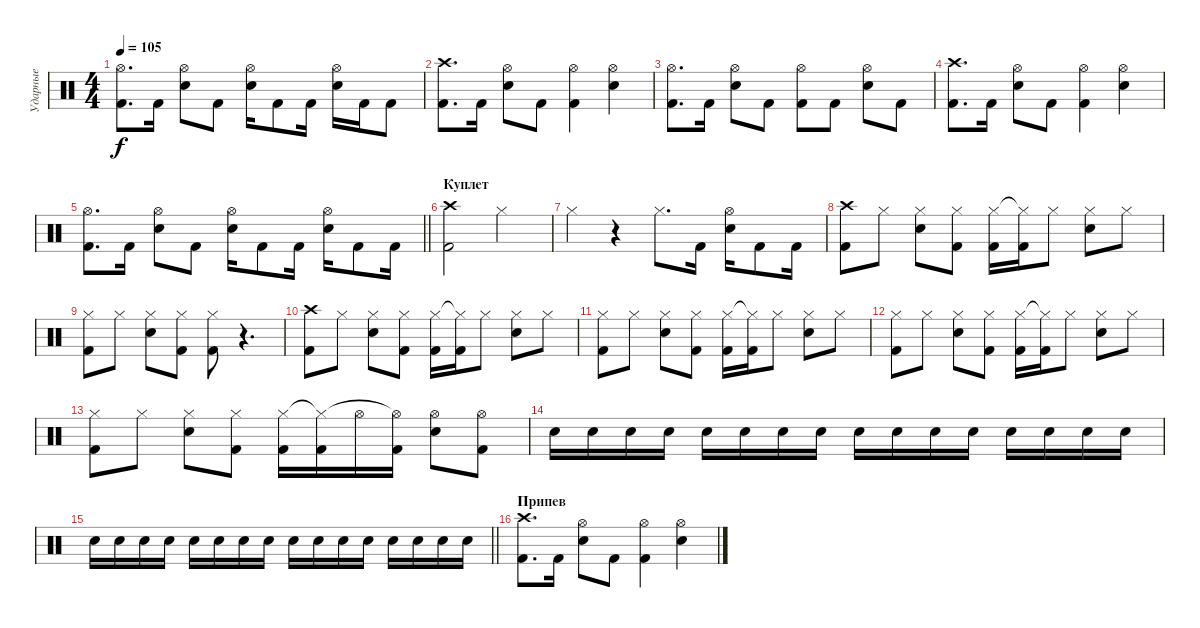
\track ("Ударные" "Ударные") {instrument percussion}
\staff {score}
\articulation defaults
\ts (4 4)
\tempo 105
\clef neutral
\ks c
("Kick (hit) 2" "Hi-Hat (open)").8{d dy f} "Kick (hit) 2".16 ("Snare (hit) 2" "Hi-Hat (open)").8 "Kick (hit) 2".8 ("Snare (hit) 2" "Hi-Hat (open)").16 "Kick (hit) 2".8 "Kick (hit) 2".16 ("Snare (hit) 2" "Hi-Hat (open)").16 "Kick (hit) 2".16 "Kick (hit) 2".8 |
("Kick (hit) 2" "Crash high (hit)").8{d} "Kick (hit) 2".16 ("Snare (hit) 2" "Hi-Hat (open)").8 "Kick (hit) 2".8 ("Kick (hit) 2" "Hi-Hat (open)").4 ("Snare (hit) 2" "Hi-Hat (open)").4 |
("Kick (hit) 2" "Hi-Hat (open)").8{d} "Kick (hit) 2".16 ("Snare (hit) 2" "Hi-Hat (open)").8 "Kick (hit) 2".8 ("Kick (hit) 2" "Hi-Hat (open)").8 "Kick (hit) 2".8 ("Snare (hit) 2" "Hi-Hat (open)").8 "Kick (hit) 2".8 |
("Kick (hit) 2" "Crash high (hit)").8{d} "Kick (hit) 2".16 ("Snare (hit) 2" "Hi-Hat (open)").8 "Kick (hit) 2".8 ("Kick (hit) 2" "Hi-Hat (open)").4 ("Snare (hit) 2" "Hi-Hat (open)").4 |
\barLineRight lightlight
("Kick (hit) 2" "Hi-Hat (open)").8{d} "Kick (hit) 2".16 ("Snare (hit) 2" "Hi-Hat (open)").8 "Kick (hit) 2".8 ("Snare (hit) 2" "Hi-Hat (open)").16 "Kick (hit) 2".8 "Kick (hit) 2".16 ("Snare (hit) 2" "Hi-Hat (open)").16 "Kick (hit) 2".8 "Kick (hit) 2".16 |
\section ("" "Куплет")
("Kick (hit) 2" "Crash high (hit)").2 "Hi-Hat (closed)".2 |
"Hi-Hat (closed)".4 r.4 "Hi-Hat (closed)".8{d} "Kick (hit) 2".16 ("Snare (hit) 2" "Hi-Hat (open)").16 "Kick (hit) 2".8 "Kick (hit) 2".16 |
("Kick (hit) 2" "Crash high (hit)").8 "Hi-Hat (closed)".8 ("Snare (hit) 2" "Hi-Hat (closed)").8 ("Kick (hit) 2" "Hi-Hat (closed)").8 ("Kick (hit) 2" "Hi-Hat (closed)").16 ("Kick (hit) 2" "Hi-Hat (closed)"{t}).16 "Hi-Hat (closed)".8 ("Snare (hit) 2" "Hi-Hat (closed)").8 "Hi-Hat (closed)".8 |
("Kick (hit) 2" "Hi-Hat (closed)").8 "Hi-Hat (closed)".8 ("Snare (hit) 2" "Hi-Hat (closed)").8 ("Kick (hit) 2" "Hi-Hat (closed)").8 ("Kick (hit) 2" "Hi-Hat (closed)").8 r.4{d} |
("Kick (hit) 2" "Crash high (hit)").8 "Hi-Hat (closed)".8 ("Snare (hit) 2" "Hi-Hat (closed)").8 ("Kick (hit) 2" "Hi-Hat (closed)").8 ("Kick (hit) 2" "Hi-Hat (closed)").16 ("Kick (hit) 2" "Hi-Hat (closed)"{t}).16 "Hi-Hat (closed)".8 ("Snare (hit) 2" "Hi-Hat (closed)").8 "Hi-Hat (closed)".8 |
("Kick (hit) 2" "Hi-Hat (closed)").8 "Hi-Hat (closed)".8 ("Snare (hit) 2" "Hi-Hat (closed)").8 ("Kick (hit) 2" "Hi-Hat (closed)").8 ("Kick (hit) 2" "Hi-Hat (closed)").16 ("Kick (hit) 2" "Hi-Hat (closed)"{t}).16 "Hi-Hat (closed)".8 ("Snare (hit) 2" "Hi-Hat (closed)").8 "Hi-Hat (closed)".8 |
("Kick (hit) 2" "Hi-Hat (closed)").8 "Hi-Hat (closed)".8 ("Snare (hit) 2" "Hi-Hat (closed)").8 ("Kick (hit) 2" "Hi-Hat (closed)").8 ("Kick (hit) 2" "Hi-Hat (closed)").16 ("Kick (hit) 2" "Hi-Hat (closed)"{t}).16 "Hi-Hat (closed)".8 ("Snare (hit) 2" "Hi-Hat (closed)").8 "Hi-Hat (closed)".8 |
("Kick (hit) 2" "Hi-Hat (closed)").8 "Hi-Hat (closed)".8 ("Snare (hit) 2" "Hi-Hat (closed)").8 ("Kick (hit) 2" "Hi-Hat (closed)").8 ("Kick (hit) 2" "Hi-Hat (closed)").16 ("Kick (hit) 2" "Hi-Hat (closed)"{t}).16 "Hi-Hat (open)".16 ("Kick (hit) 2" "Hi-Hat (open)"{t}).16 ("Snare (hit) 2" "Hi-Hat (open)").8 ("Kick (hit) 2" "Hi-Hat (open)").8 |
"Snare (hit) 2".16 "Snare (hit) 2".16 "Snare (hit) 2".16 "Snare (hit) 2".16 "Snare (hit) 2".16 "Snare (hit) 2".16 "Snare (hit) 2".16 "Snare (hit) 2".16 "Snare (hit) 2".16 "Snare (hit) 2".16 "Snare (hit) 2".16 "Snare (hit) 2".16 "Snare (hit) 2".16 "Snare (hit) 2".16 "Snare (hit) 2".16 "Snare (hit) 2".16 |
\barLineRight lightlight "Snare (hit) 2".16 "Snare (hit) 2".16 "Snare (hit) 2".16 "Snare (hit) 2".16 "Snare (hit) 2".16 "Snare (hit) 2".16 "Snare (hit) 2".16 "Snare (hit) 2".16 "Snare (hit) 2".16 "Snare (hit) 2".16 "Snare (hit) 2".16 "Snare (hit) 2".16 "Snare (hit) 2".16 "Snare (hit) 2".16 "Snare (hit) 2".16 "Snare (hit) 2".16
|
\section ("" "Припев")
("Kick (hit) 2" "Crash high (hit)").8{d} "Kick (hit) 2".16 ("Snare (hit) 2" "Hi-Hat (open)").8 "Kick (hit) 2".8 ("Kick (hit) 2" "Hi-Hat (open)").4 ("Snare (hit) 2" "Hi-Hat (open)").4
